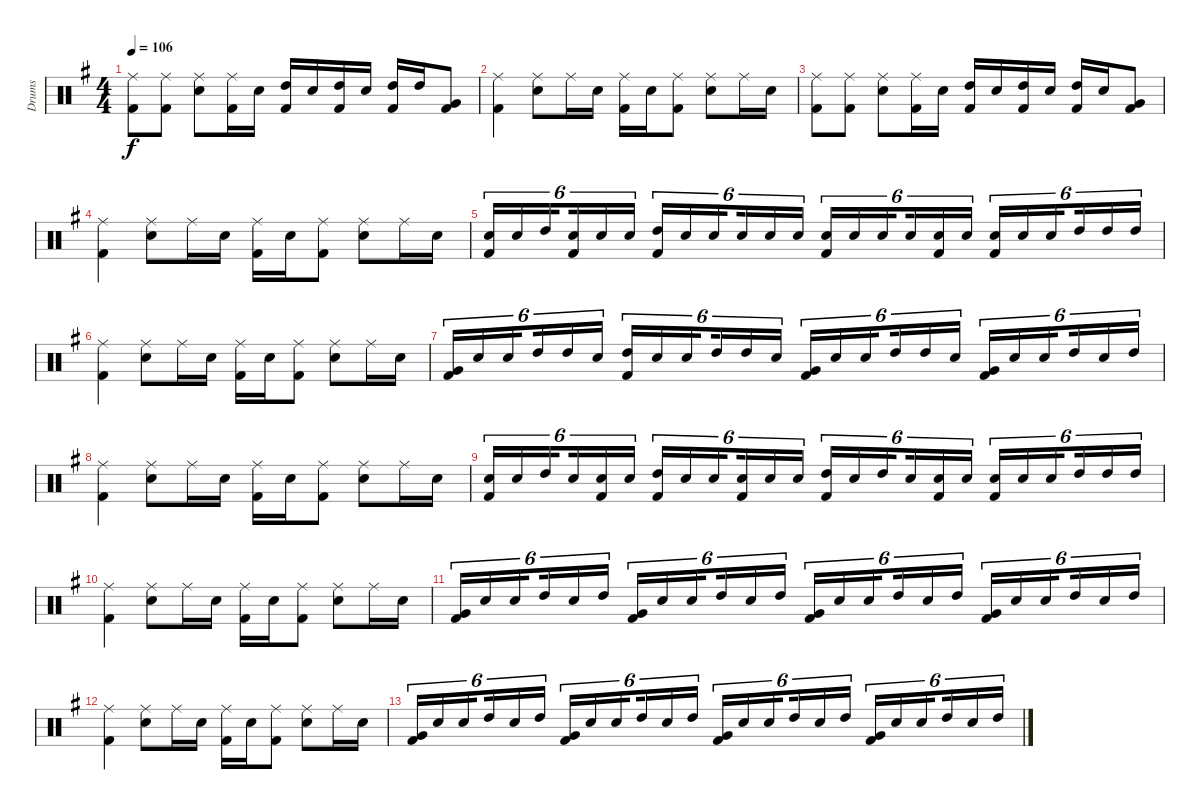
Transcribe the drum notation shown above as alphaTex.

\track ("Drums" "Drums") {instrument percussion}
\staff {score}
\articulation defaults
\ts (4 4)
\tempo 106
\clef neutral
\ks g
("Ride (middle)" "Kick (hit) 2").8{dy f} ("Ride (middle)" "Kick (hit) 2").8 ("Ride (middle)" "Snare (hit) 2").8 ("Ride (middle)" "Kick (hit) 2").16 "Snare (hit) 2".16 ("High Tom (hit)" "Kick (hit) 2").16 "Snare (hit) 2".16 ("High Tom (hit)" "Kick (hit) 2").16 "Snare (hit) 2".16 ("High Tom (hit)" "Kick (hit) 2").16 "High Tom (hit)".16 ("Very Low Tom (hit)" "Kick (hit) 2").8 |
("Ride (middle)" "Kick (hit) 2").4 ("Ride (middle)" "Snare (hit) 2").8 "Ride (middle)".16 "Snare (hit) 2".16 ("Ride (middle)" "Kick (hit) 2").16 "Snare (hit) 2".16 ("Ride (middle)" "Kick (hit) 2").8 ("Ride (middle)" "Snare (hit) 2").8 "Ride (middle)".16 "Snare (hit) 2".16 |
("Ride (middle)" "Kick (hit) 2").8 ("Ride (middle)" "Kick (hit) 2").8 ("Ride (middle)" "Snare (hit) 2").8 ("Ride (middle)" "Kick (hit) 2").16 "Snare (hit) 2".16 ("High Tom (hit)" "Kick (hit) 2").16 "Snare (hit) 2".16 ("High Tom (hit)" "Kick (hit) 2").16 "Snare (hit) 2".16 ("High Tom (hit)" "Kick (hit) 2").16 "Snare (hit) 2".16 ("Very Low Tom (hit)" "Kick (hit) 2").8 |
("Ride (middle)" "Kick (hit) 2").4 ("Ride (middle)" "Snare (hit) 2").8 "Ride (middle)".16 "Snare (hit) 2".16 ("Ride (middle)" "Kick (hit) 2").16 "Snare (hit) 2".16 ("Ride (middle)" "Kick (hit) 2").8 ("Ride (middle)" "Snare (hit) 2").8 "Ride (middle)".16 "Snare (hit) 2".16 |
("Snare (hit) 2" "Kick (hit) 2").16{tu (6 4)} "Snare (hit) 2".16{tu (6 4)} "High Tom (hit)".16{tu (6 4) beam splitsecondary} ("Snare (hit) 2" "Kick (hit) 2").16{tu (6 4)} "Snare (hit) 2".16{tu (6 4)} "Snare (hit) 2".16{tu (6 4)} ("High Tom (hit)" "Kick (hit) 2").16{tu (6 4)} "Snare (hit) 2".16{tu (6 4)} "Snare (hit) 2".16{tu (6 4) beam splitsecondary} "Snare (hit) 2".16{tu (6 4)} "Snare (hit) 2".16{tu (6 4)} "Snare (hit) 2".16{tu (6 4)} ("Snare (hit) 2" "Kick (hit) 2").16{tu (6 4)} "Snare (hit) 2".16{tu (6 4)} "Snare (hit) 2".16{tu (6 4) beam splitsecondary} "Snare (hit) 2".16{tu (6 4)} ("Snare (hit) 2" "Kick (hit) 2").16{tu (6 4)} "Snare (hit) 2".16{tu (6 4)} ("Snare (hit) 2" "Kick (hit) 2").16{tu (6 4)} "Snare (hit) 2".16{tu (6 4)} "Snare (hit) 2".16{tu (6 4) beam splitsecondary} "High Tom (hit)".16{tu (6 4)} "High Tom (hit)".16{tu (6 4)} "High Tom (hit)".16{tu (6 4)} |
("Ride (middle)" "Kick (hit) 2").4 ("Ride (middle)" "Snare (hit) 2").8 "Ride (middle)".16 "Snare (hit) 2".16 ("Ride (middle)" "Kick (hit) 2").16 "Snare (hit) 2".16 ("Ride (middle)" "Kick (hit) 2").8 ("Ride (middle)" "Snare (hit) 2").8 "Ride (middle)".16 "Snare (hit) 2".16 |
("Very Low Tom (hit)" "Kick (hit) 2").16{tu (6 4)} "Snare (hit) 2".16{tu (6 4)} "Snare (hit) 2".16{tu (6 4) beam splitsecondary} "High Tom (hit)".16{tu (6 4)} "High Tom (hit)".16{tu (6 4)} "Snare (hit) 2".16{tu (6 4)} ("High Tom (hit)" "Kick (hit) 2").16{tu (6 4)} "Snare (hit) 2".16{tu (6 4)} "Snare (hit) 2".16{tu (6 4) beam splitsecondary} "High Tom (hit)".16{tu (6 4)} "High Tom (hit)".16{tu (6 4)} "Snare (hit) 2".16{tu (6 4)} ("Very Low Tom (hit)" "Kick (hit) 2").16{tu (6 4)} "Snare (hit) 2".16{tu (6 4)} "Snare (hit) 2".16{tu (6 4) beam splitsecondary} "High Tom (hit)".16{tu (6 4)} "High Tom (hit)".16{tu (6 4)} "Snare (hit) 2".16{tu (6 4)} ("Very Low Tom (hit)" "Kick (hit) 2").16{tu (6 4)} "Snare (hit) 2".16{tu (6 4)} "Snare (hit) 2".16{tu (6 4) beam splitsecondary} "High Tom (hit)".16{tu (6 4)} "Snare (hit) 2".16{tu (6 4)} "High Tom (hit)".16{tu (6 4)} |
("Ride (middle)" "Kick (hit) 2").4 ("Ride (middle)" "Snare (hit) 2").8 "Ride (middle)".16 "Snare (hit) 2".16 ("Ride (middle)" "Kick (hit) 2").16 "Snare (hit) 2".16 ("Ride (middle)" "Kick (hit) 2").8 ("Ride (middle)" "Snare (hit) 2").8 "Ride (middle)".16 "Snare (hit) 2".16 |
("Snare (hit) 2" "Kick (hit) 2").16{tu (6 4)} "Snare (hit) 2".16{tu (6 4)} "High Tom (hit)".16{tu (6 4) beam splitsecondary} "Snare (hit) 2".16{tu (6 4)} ("Snare (hit) 2" "Kick (hit) 2").16{tu (6 4)} "Snare (hit) 2".16{tu (6 4)} ("High Tom (hit)" "Kick (hit) 2").16{tu (6 4)} "Snare (hit) 2".16{tu (6 4)} "Snare (hit) 2".16{tu (6 4) beam splitsecondary} ("Snare (hit) 2" "Kick (hit) 2").16{tu (6 4)} "Snare (hit) 2".16{tu (6 4)} "Snare (hit) 2".16{tu (6 4)} ("High Tom (hit)" "Kick (hit) 2").16{tu (6 4)} "Snare (hit) 2".16{tu (6 4)} "High Tom (hit)".16{tu (6 4) beam splitsecondary} "Snare (hit) 2".16{tu (6 4)} ("Snare (hit) 2" "Kick (hit) 2").16{tu (6 4)} "Snare (hit) 2".16{tu (6 4)} ("Snare (hit) 2" "Kick (hit) 2").16{tu (6 4)} "Snare (hit) 2".16{tu (6 4)} "Snare (hit) 2".16{tu (6 4) beam splitsecondary} "High Tom (hit)".16{tu (6 4)} "High Tom (hit)".16{tu (6 4)} "High Tom (hit)".16{tu (6 4)} |
("Ride (middle)" "Kick (hit) 2").4 ("Ride (middle)" "Snare (hit) 2").8 "Ride (middle)".16 "Snare (hit) 2".16 ("Ride (middle)" "Kick (hit) 2").16 "Snare (hit) 2".16 ("Ride (middle)" "Kick (hit) 2").8 ("Ride (middle)" "Snare (hit) 2").8 "Ride (middle)".16 "Snare (hit) 2".16 |
("Very Low Tom (hit)" "Kick (hit) 2").16{tu (6 4)} "Snare (hit) 2".16{tu (6 4)} "Snare (hit) 2".16{tu (6 4) beam splitsecondary} "High Tom (hit)".16{tu (6 4)} "Snare (hit) 2".16{tu (6 4)} "High Tom (hit)".16{tu (6 4)} ("Very Low Tom (hit)" "Kick (hit) 2").16{tu (6 4)} "Snare (hit) 2".16{tu (6 4)} "Snare (hit) 2".16{tu (6 4) beam splitsecondary} "High Tom (hit)".16{tu (6 4)} "Snare (hit) 2".16{tu (6 4)} "High Tom (hit)".16{tu (6 4)} ("Very Low Tom (hit)" "Kick (hit) 2").16{tu (6 4)} "Snare (hit) 2".16{tu (6 4)} "Snare (hit) 2".16{tu (6 4) beam splitsecondary} "High Tom (hit)".16{tu (6 4)} "Snare (hit) 2".16{tu (6 4)} "High Tom (hit)".16{tu (6 4)} ("Very Low Tom (hit)" "Kick (hit) 2").16{tu (6 4)} "Snare (hit) 2".16{tu (6 4)} "Snare (hit) 2".16{tu (6 4) beam splitsecondary} "High Tom (hit)".16{tu (6 4)} "Snare (hit) 2".16{tu (6 4)} "High Tom (hit)".16{tu (6 4)} |
("Ride (middle)" "Kick (hit) 2").4 ("Ride (middle)" "Snare (hit) 2").8 "Ride (middle)".16 "Snare (hit) 2".16 ("Ride (middle)" "Kick (hit) 2").16 "Snare (hit) 2".16 ("Ride (middle)" "Kick (hit) 2").8 ("Ride (middle)" "Snare (hit) 2").8 "Ride (middle)".16 "Snare (hit) 2".16 |
("Very Low Tom (hit)" "Kick (hit) 2").16{tu (6 4)} "Snare (hit) 2".16{tu (6 4)} "Snare (hit) 2".16{tu (6 4) beam splitsecondary} "High Tom (hit)".16{tu (6 4)} "Snare (hit) 2".16{tu (6 4)} "High Tom (hit)".16{tu (6 4)} ("Very Low Tom (hit)" "Kick (hit) 2").16{tu (6 4)} "Snare (hit) 2".16{tu (6 4)} "Snare (hit) 2".16{tu (6 4) beam splitsecondary} "High Tom (hit)".16{tu (6 4)} "Snare (hit) 2".16{tu (6 4)} "High Tom (hit)".16{tu (6 4)} ("Very Low Tom (hit)" "Kick (hit) 2").16{tu (6 4)} "Snare (hit) 2".16{tu (6 4)} "Snare (hit) 2".16{tu (6 4) beam splitsecondary} "High Tom (hit)".16{tu (6 4)} "Snare (hit) 2".16{tu (6 4)} "High Tom (hit)".16{tu (6 4)} ("Very Low Tom (hit)" "Kick (hit) 2").16{tu (6 4)} "Snare (hit) 2".16{tu (6 4)} "Snare (hit) 2".16{tu (6 4) beam splitsecondary} "High Tom (hit)".16{tu (6 4)} "Snare (hit) 2".16{tu (6 4)} "High Tom (hit)".16{tu (6 4)}
